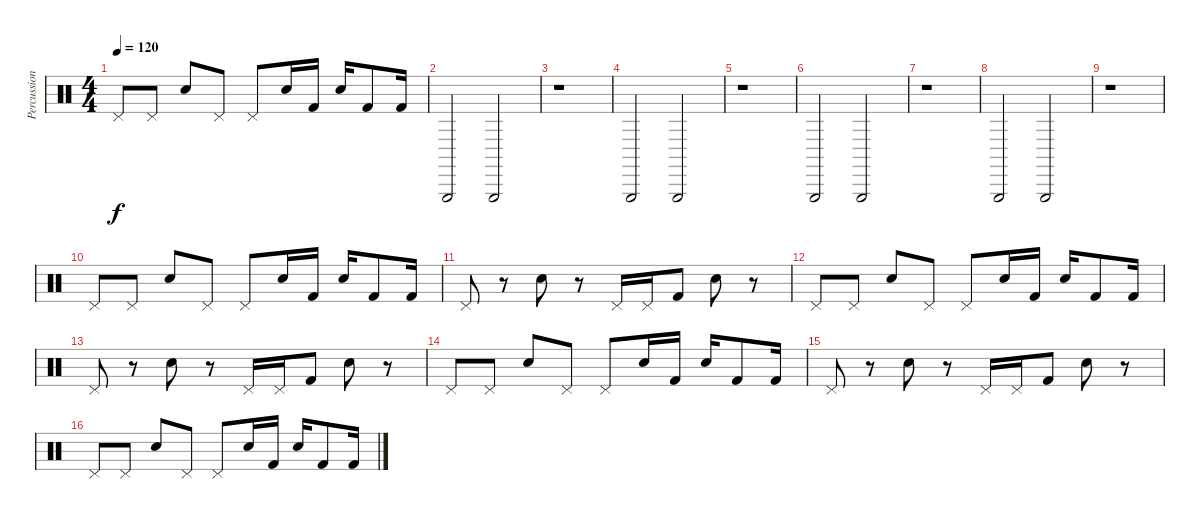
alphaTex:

\track ("Percussion" "Percussion") {instrument percussion}
\staff {score}
\articulation defaults
\ts (4 4)
\tempo 120
\clef neutral
\ks c "Pedal Hi-Hat (hit)".8{dy f} "Pedal Hi-Hat (hit)".8 "Electric Snare (hit)".8 "Pedal Hi-Hat (hit)".8 "Pedal Hi-Hat (hit)".8 "Electric Snare (hit)".16 "Kick (hit) 2".16 "Electric Snare (hit)".16 "Kick (hit) 2".8 "Kick (hit) 2".16
|
"Triangle (hit)".2 "Triangle (hit)".2 |
r.1 |
"Triangle (hit)".2 "Triangle (hit)".2 |
r.1 |
"Triangle (hit)".2 "Triangle (hit)".2 |
r.1 |
"Triangle (hit)".2 "Triangle (hit)".2 |
r.1 |
"Pedal Hi-Hat (hit)".8 "Pedal Hi-Hat (hit)".8 "Electric Snare (hit)".8 "Pedal Hi-Hat (hit)".8 "Pedal Hi-Hat (hit)".8 "Electric Snare (hit)".16 "Kick (hit) 2".16 "Electric Snare (hit)".16 "Kick (hit) 2".8 "Kick (hit) 2".16 |
"Pedal Hi-Hat (hit)".8 r.8 "Electric Snare (hit)".8 r.8 "Pedal Hi-Hat (hit)".16 "Pedal Hi-Hat (hit)".16 "Kick (hit) 2".8 "Electric Snare (hit)".8 r.8 |
"Pedal Hi-Hat (hit)".8 "Pedal Hi-Hat (hit)".8 "Electric Snare (hit)".8 "Pedal Hi-Hat (hit)".8 "Pedal Hi-Hat (hit)".8 "Electric Snare (hit)".16 "Kick (hit) 2".16 "Electric Snare (hit)".16 "Kick (hit) 2".8 "Kick (hit) 2".16 |
"Pedal Hi-Hat (hit)".8 r.8 "Electric Snare (hit)".8 r.8 "Pedal Hi-Hat (hit)".16 "Pedal Hi-Hat (hit)".16 "Kick (hit) 2".8 "Electric Snare (hit)".8 r.8 |
"Pedal Hi-Hat (hit)".8 "Pedal Hi-Hat (hit)".8 "Electric Snare (hit)".8 "Pedal Hi-Hat (hit)".8 "Pedal Hi-Hat (hit)".8 "Electric Snare (hit)".16 "Kick (hit) 2".16 "Electric Snare (hit)".16 "Kick (hit) 2".8 "Kick (hit) 2".16 |
"Pedal Hi-Hat (hit)".8 r.8 "Electric Snare (hit)".8 r.8 "Pedal Hi-Hat (hit)".16 "Pedal Hi-Hat (hit)".16 "Kick (hit) 2".8 "Electric Snare (hit)".8 r.8 |
"Pedal Hi-Hat (hit)".8 "Pedal Hi-Hat (hit)".8 "Electric Snare (hit)".8 "Pedal Hi-Hat (hit)".8 "Pedal Hi-Hat (hit)".8 "Electric Snare (hit)".16 "Kick (hit) 2".16 "Electric Snare (hit)".16 "Kick (hit) 2".8 "Kick (hit) 2".16
